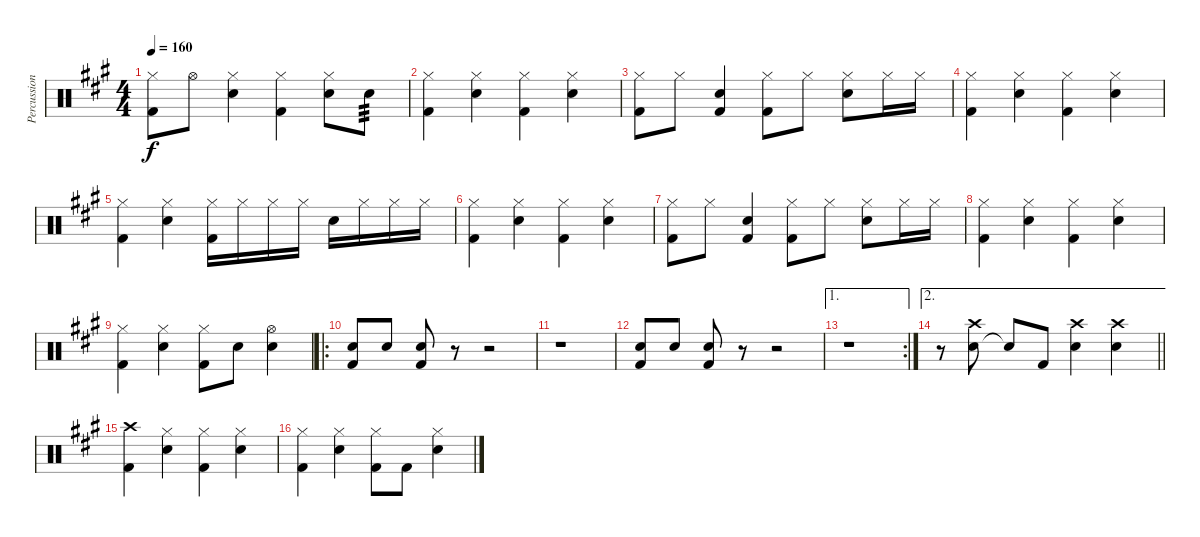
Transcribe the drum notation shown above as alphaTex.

\track ("Percussions" "Percussion") {instrument percussion}
\staff {score}
\articulation defaults
\ts (4 4)
\tempo 160
\clef neutral
\ks a
("Hi-Hat (closed)" "Kick (hit) 2").8{dy f} "Hi-Hat (open)".8 ("Hi-Hat (closed)" "Snare (hit) 2").4 ("Hi-Hat (closed)" "Kick (hit) 2").4 ("Hi-Hat (closed)" "Snare (hit) 2").8 "Snare (hit) 2".8{tp 3} |
("Hi-Hat (closed)" "Kick (hit) 2").4 ("Hi-Hat (closed)" "Snare (hit) 2").4 ("Hi-Hat (closed)" "Kick (hit) 2").4 ("Hi-Hat (closed)" "Snare (hit) 2").4 |
("Hi-Hat (closed)" "Kick (hit) 2").8 "Hi-Hat (closed)".8 ("Snare (hit) 2" "Kick (hit) 2").4 ("Hi-Hat (closed)" "Kick (hit) 2").8 "Hi-Hat (closed)".8 ("Hi-Hat (closed)" "Snare (hit) 2").8 "Hi-Hat (closed)".16 "Hi-Hat (closed)".16 |
("Hi-Hat (closed)" "Kick (hit) 2").4 ("Hi-Hat (closed)" "Snare (hit) 2").4 ("Hi-Hat (closed)" "Kick (hit) 2").4 ("Hi-Hat (closed)" "Snare (hit) 2").4 |
("Hi-Hat (closed)" "Kick (hit) 2").4 ("Hi-Hat (closed)" "Snare (hit) 2").4 ("Hi-Hat (closed)" "Kick (hit) 2").16 "Hi-Hat (closed)".16 "Hi-Hat (closed)".16 "Hi-Hat (closed)".16 "Snare (hit) 2".16 "Hi-Hat (closed)".16 "Hi-Hat (closed)".16 "Hi-Hat (closed)".16 |
("Hi-Hat (closed)" "Kick (hit) 2").4 ("Hi-Hat (closed)" "Snare (hit) 2").4 ("Hi-Hat (closed)" "Kick (hit) 2").4 ("Hi-Hat (closed)" "Snare (hit) 2").4 |
("Hi-Hat (closed)" "Kick (hit) 2").8 "Hi-Hat (closed)".8 ("Snare (hit) 2" "Kick (hit) 2").4 ("Hi-Hat (closed)" "Kick (hit) 2").8 "Hi-Hat (closed)".8 ("Hi-Hat (closed)" "Snare (hit) 2").8 "Hi-Hat (closed)".16 "Hi-Hat (closed)".16 |
("Hi-Hat (closed)" "Kick (hit) 2").4 ("Hi-Hat (closed)" "Snare (hit) 2").4 ("Hi-Hat (closed)" "Kick (hit) 2").4 ("Hi-Hat (closed)" "Snare (hit) 2").4 |
("Hi-Hat (closed)" "Kick (hit) 2").4 ("Hi-Hat (closed)" "Snare (hit) 2").4 ("Hi-Hat (closed)" "Kick (hit) 2").8 "Snare (hit) 2".8 ("Hi-Hat (open)" "Snare (hit) 2").4 |
\ro
("Snare (hit) 2" "Kick (hit) 2").8 "Snare (hit) 2".8 ("Snare (hit) 2" "Kick (hit) 2").8 r.8 r.2 |
r.1 |
("Snare (hit) 2" "Kick (hit) 2").8 "Snare (hit) 2".8 ("Snare (hit) 2" "Kick (hit) 2").8 r.8 r.2 |
\ae 1
\rc 2
r.1 |
\ae 2
\barLineRight lightlight
r.8 ("Snare (hit) 2" "Crash high (hit)").8 "Snare (hit)"{t}.8 "Kick (hit) 2".8 ("Snare (hit) 2" "Crash high (hit)").4 ("Snare (hit) 2" "Crash high (hit)").4 |
("Kick (hit) 2" "Crash high (hit)").4 ("Hi-Hat (closed)" "Snare (hit) 2").4 ("Hi-Hat (closed)" "Kick (hit) 2").4 ("Hi-Hat (closed)" "Snare (hit) 2").4 |
("Hi-Hat (closed)" "Kick (hit) 2").4 ("Hi-Hat (closed)" "Snare (hit) 2").4 ("Hi-Hat (closed)" "Kick (hit) 2").8 "Kick (hit) 2".8 ("Hi-Hat (closed)" "Snare (hit) 2").4
